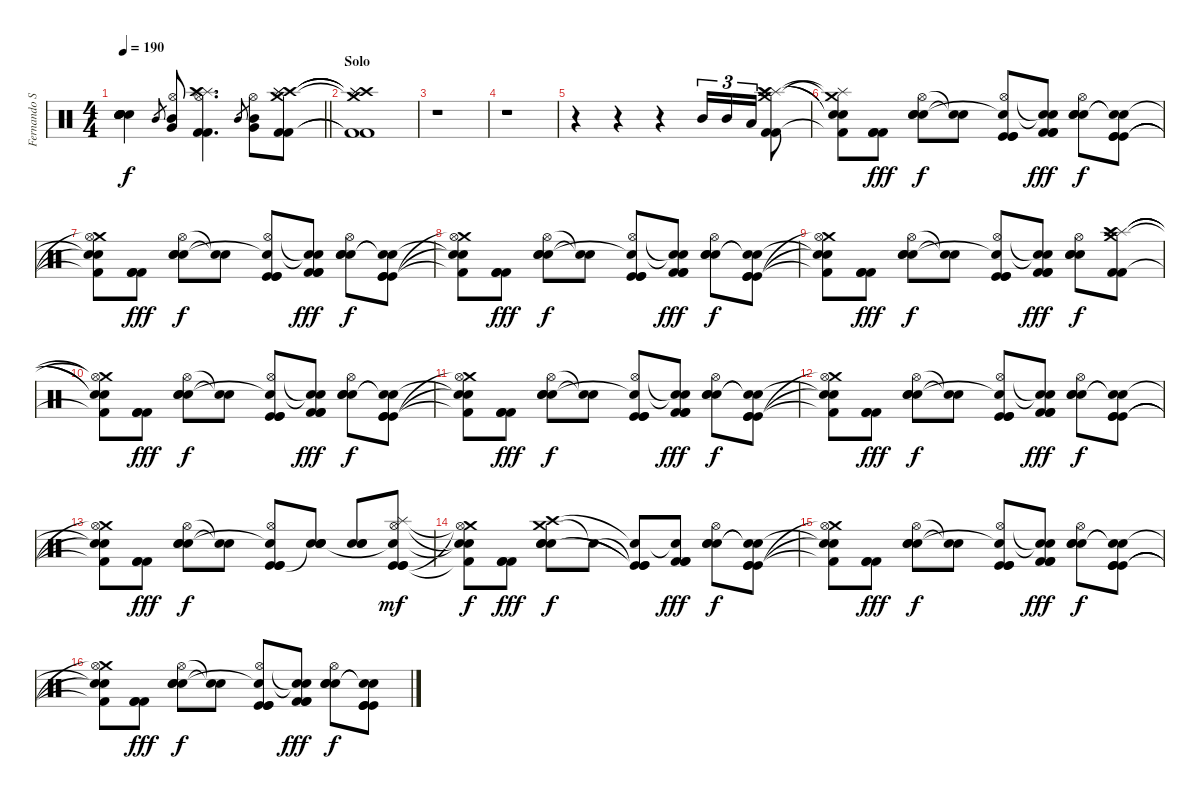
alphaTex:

\track ("Fernando Sarcella" "Fernando S") {instrument percussion}
\staff {score}
\articulation defaults
\ts (4 4)
\tempo 190
\clef neutral
\barLineRight lightlight
\ks c
("Snare (hit)"{t} "Snare (hit)"{t} "Snare (hit)"{t} "Snare (hit)"{t} "Snare (hit)"{t} "Snare (hit)"{t}).4{dy f} "Mid Tom (hit)".8{gr} ("Hi-Hat (open)" "Mid Tom (hit)" "Very Low Tom (hit)").8 ("Splash (hit)" "Splash (hit)" "Hi-Hat (open)" "Crash high (hit)" "Kick (hit) 2" "Kick (hit) 2").4{d} "Mid Tom (hit)".8{gr} ("Hi-Hat (open)" "Mid Tom (hit)" "Very Low Tom (hit)").8 ("Kick (hit) 2" "Crash medium (hit)" "Crash high (hit)" "Splash (hit)" "Kick (hit) 2" "Splash (hit)").8 |
\section ("" "Solo")
("Kick (hit) 2"{t} "Crash medium (hit)"{t} "Crash high (hit)"{t} "Splash (hit)"{t} "Kick (hit) 2"{t} "Splash (hit)"{t}).1 |
r.1 |
r.1 |
r.4 r.4 r.4 "Mid Tom (hit)".16{tu (3 2)} "Mid Tom (hit)".16{tu (3 2)} "Low Tom (hit)".16{tu (3 2)} ("Splash (hit)" "Crash medium (hit)" "Splash (hit)" "Crash high (hit)" "Kick (hit) 2" "Kick (hit) 2").8 |
("Crash medium (hit)"{t} "Splash (hit)"{t} "Snare (hit)"{t} "Snare (hit)"{t} "Kick (hit) 2"{t}).8 ("Kick (hit) 2" "Kick (hit) 2" "Kick (hit) 2").8{dy fff} ("Hi-Hat (open)" "Electric Snare (hit)" "Electric Snare (hit)" "Electric Snare (hit)").8{dy f} ("Snare (hit)"{t} "Snare (hit)"{t}).8 ("Kick (hit)" "Hi-Hat (open)" "Snare (hit)"{t} "Kick (hit)" "Kick (hit)").8 ("Kick (hit) 2" "Snare (hit)"{t} "Snare (hit)"{t} "Kick (hit) 2" "Kick (hit) 2").8{dy fff} ("Hi-Hat (open)" "Electric Snare (hit)" "Electric Snare (hit)" "Electric Snare (hit)").8{dy f} ("Kick (hit)" "Snare (hit)"{t} "Snare (hit)"{t} "Kick (hit)" "Kick (hit)").8 |
("Crash medium (hit)"{t} "Hi-Hat (open)" "Snare (hit)"{t} "Snare (hit)"{t} "Kick (hit) 2"{t}).8 ("Kick (hit) 2" "Kick (hit) 2" "Kick (hit) 2").8{dy fff} ("Hi-Hat (open)" "Electric Snare (hit)" "Electric Snare (hit)" "Electric Snare (hit)").8{dy f} ("Snare (hit)"{t} "Snare (hit)"{t}).8 ("Kick (hit)" "Hi-Hat (open)" "Snare (hit)"{t} "Kick (hit)" "Kick (hit)").8 ("Kick (hit) 2" "Snare (hit)"{t} "Snare (hit)"{t} "Kick (hit) 2" "Kick (hit) 2").8{dy fff} ("Hi-Hat (open)" "Electric Snare (hit)" "Electric Snare (hit)" "Electric Snare (hit)").8{dy f} ("Kick (hit)" "Snare (hit)"{t} "Snare (hit)"{t} "Kick (hit)" "Kick (hit)").8 |
("Crash medium (hit)"{t} "Hi-Hat (open)" "Snare (hit)"{t} "Snare (hit)"{t} "Kick (hit) 2"{t}).8 ("Kick (hit) 2" "Kick (hit) 2" "Kick (hit) 2").8{dy fff} ("Hi-Hat (open)" "Electric Snare (hit)" "Electric Snare (hit)" "Electric Snare (hit)").8{dy f} ("Snare (hit)"{t} "Snare (hit)"{t}).8 ("Kick (hit)" "Hi-Hat (open)" "Snare (hit)"{t} "Kick (hit)" "Kick (hit)").8 ("Kick (hit) 2" "Snare (hit)"{t} "Snare (hit)"{t} "Kick (hit) 2" "Kick (hit) 2").8{dy fff} ("Hi-Hat (open)" "Electric Snare (hit)" "Electric Snare (hit)" "Electric Snare (hit)").8{dy f} ("Kick (hit)" "Snare (hit)"{t} "Snare (hit)"{t} "Kick (hit)" "Kick (hit)").8 |
("Crash medium (hit)"{t} "Hi-Hat (open)" "Snare (hit)"{t} "Snare (hit)"{t} "Kick (hit) 2"{t}).8 ("Kick (hit) 2" "Kick (hit) 2" "Kick (hit) 2").8{dy fff} ("Hi-Hat (open)" "Electric Snare (hit)" "Electric Snare (hit)" "Electric Snare (hit)").8{dy f} ("Snare (hit)"{t} "Snare (hit)"{t}).8 ("Kick (hit)" "Hi-Hat (open)" "Snare (hit)"{t} "Kick (hit)" "Kick (hit)").8 ("Kick (hit) 2" "Snare (hit)"{t} "Snare (hit)"{t} "Kick (hit) 2" "Kick (hit) 2").8{dy fff} ("Hi-Hat (open)" "Electric Snare (hit)" "Electric Snare (hit)" "Electric Snare (hit)").8{dy f} ("Splash (hit)" "Crash medium (hit)" "Splash (hit)" "Crash high (hit)" "Kick (hit) 2" "Kick (hit) 2").8 |
("Crash medium (hit)"{t} "Hi-Hat (open)"{t} "Snare (hit)"{t} "Snare (hit)"{t} "Kick (hit) 2"{t}).8 ("Kick (hit) 2" "Kick (hit) 2" "Kick (hit) 2").8{dy fff} ("Hi-Hat (open)" "Electric Snare (hit)" "Electric Snare (hit)" "Electric Snare (hit)").8{dy f} ("Snare (hit)"{t} "Snare (hit)"{t}).8 ("Kick (hit)" "Hi-Hat (open)" "Snare (hit)"{t} "Kick (hit)" "Kick (hit)").8 ("Kick (hit) 2" "Snare (hit)"{t} "Snare (hit)"{t} "Kick (hit) 2" "Kick (hit) 2").8{dy fff} ("Hi-Hat (open)" "Electric Snare (hit)" "Electric Snare (hit)" "Electric Snare (hit)").8{dy f} ("Kick (hit)" "Snare (hit)"{t} "Snare (hit)"{t} "Kick (hit)" "Kick (hit)").8 |
("Crash medium (hit)"{t} "Hi-Hat (open)" "Snare (hit)"{t} "Snare (hit)"{t} "Kick (hit) 2"{t}).8 ("Kick (hit) 2" "Kick (hit) 2" "Kick (hit) 2").8{dy fff} ("Hi-Hat (open)" "Electric Snare (hit)" "Electric Snare (hit)" "Electric Snare (hit)").8{dy f} ("Snare (hit)"{t} "Snare (hit)"{t}).8 ("Kick (hit)" "Hi-Hat (open)" "Snare (hit)"{t} "Kick (hit)" "Kick (hit)").8 ("Kick (hit) 2" "Snare (hit)"{t} "Snare (hit)"{t} "Kick (hit) 2" "Kick (hit) 2").8{dy fff} ("Hi-Hat (open)" "Electric Snare (hit)" "Electric Snare (hit)" "Electric Snare (hit)").8{dy f} ("Kick (hit)" "Snare (hit)"{t} "Snare (hit)"{t} "Kick (hit)" "Kick (hit)").8 |
("Crash medium (hit)"{t} "Hi-Hat (open)" "Snare (hit)"{t} "Snare (hit)"{t} "Kick (hit) 2"{t}).8 ("Kick (hit) 2" "Kick (hit) 2" "Kick (hit) 2").8{dy fff} ("Hi-Hat (open)" "Electric Snare (hit)" "Electric Snare (hit)" "Electric Snare (hit)").8{dy f} ("Snare (hit)"{t} "Snare (hit)"{t}).8 ("Kick (hit)" "Hi-Hat (open)" "Snare (hit)"{t} "Kick (hit)" "Kick (hit)").8 ("Kick (hit) 2" "Snare (hit)"{t} "Snare (hit)"{t} "Kick (hit) 2" "Kick (hit) 2").8{dy fff} ("Hi-Hat (open)" "Electric Snare (hit)" "Electric Snare (hit)" "Electric Snare (hit)").8{dy f} ("Kick (hit)" "Snare (hit)"{t} "Snare (hit)"{t} "Kick (hit)" "Kick (hit)").8 |
("Crash medium (hit)"{t} "Hi-Hat (open)" "Snare (hit)"{t} "Snare (hit)"{t} "Kick (hit) 2"{t}).8 ("Kick (hit) 2" "Kick (hit) 2" "Kick (hit) 2").8{dy fff} ("Hi-Hat (open)" "Electric Snare (hit)" "Electric Snare (hit)" "Electric Snare (hit)").8{dy f} ("Snare (hit)"{t} "Snare (hit)"{t}).8 ("Kick (hit)" "Hi-Hat (open)" "Snare (hit)"{t} "Kick (hit)" "Kick (hit)").8 ("Snare (hit)"{t} "Electric Snare (hit)" "Electric Snare (hit)" "Electric Snare (hit)").8 ("Electric Snare (hit)" "Electric Snare (hit)" "Electric Snare (hit)").8 ("Kick (hit)" "Splash (hit)" "Hi-Hat (open)" "Snare (hit)"{t} "Kick (hit)" "Kick (hit)").8{dy mf} |
("Crash medium (hit)"{t} "Hi-Hat (open)"{t} "Snare (hit)"{t} "Snare (hit)"{t} "Kick (hit) 2"{t}).8{dy f} ("Kick (hit) 2" "Kick (hit) 2" "Kick (hit) 2").8{dy fff} ("Crash medium (hit)" "Crash high (hit)" "Electric Snare (hit)" "Electric Snare (hit)" "Electric Snare (hit)").8{dy f} "Snare (hit)"{t}.8 ("Kick (hit)"{t} "Snare (hit)"{t} "Kick (hit)"{t} "Kick (hit)"{t}).8 ("Kick (hit) 2" "Snare (hit)"{t} "Kick (hit) 2" "Kick (hit) 2").8{dy fff} ("Hi-Hat (open)" "Electric Snare (hit)" "Electric Snare (hit)" "Electric Snare (hit)").8{dy f} ("Kick (hit)" "Snare (hit)"{t} "Snare (hit)"{t} "Kick (hit)" "Kick (hit)").8 |
("Crash medium (hit)"{t} "Hi-Hat (open)" "Snare (hit)"{t} "Snare (hit)"{t} "Kick (hit) 2"{t}).8 ("Kick (hit) 2" "Kick (hit) 2" "Kick (hit) 2").8{dy fff} ("Hi-Hat (open)" "Electric Snare (hit)" "Electric Snare (hit)" "Electric Snare (hit)").8{dy f} ("Snare (hit)"{t} "Snare (hit)"{t}).8 ("Kick (hit)" "Hi-Hat (open)" "Snare (hit)"{t} "Kick (hit)" "Kick (hit)").8 ("Kick (hit) 2" "Snare (hit)"{t} "Snare (hit)"{t} "Kick (hit) 2" "Kick (hit) 2").8{dy fff} ("Hi-Hat (open)" "Electric Snare (hit)" "Electric Snare (hit)" "Electric Snare (hit)").8{dy f} ("Kick (hit)" "Snare (hit)"{t} "Snare (hit)"{t} "Kick (hit)" "Kick (hit)").8 |
("Crash medium (hit)"{t} "Hi-Hat (open)" "Snare (hit)"{t} "Snare (hit)"{t} "Kick (hit) 2"{t}).8 ("Kick (hit) 2" "Kick (hit) 2" "Kick (hit) 2").8{dy fff} ("Hi-Hat (open)" "Electric Snare (hit)" "Electric Snare (hit)" "Electric Snare (hit)").8{dy f} ("Snare (hit)"{t} "Snare (hit)"{t}).8 ("Kick (hit)" "Hi-Hat (open)" "Snare (hit)"{t} "Kick (hit)" "Kick (hit)").8 ("Kick (hit) 2" "Snare (hit)"{t} "Snare (hit)"{t} "Kick (hit) 2" "Kick (hit) 2").8{dy fff} ("Hi-Hat (open)" "Electric Snare (hit)" "Electric Snare (hit)" "Electric Snare (hit)").8{dy f} ("Kick (hit)" "Snare (hit)"{t} "Snare (hit)"{t} "Kick (hit)" "Kick (hit)").8
